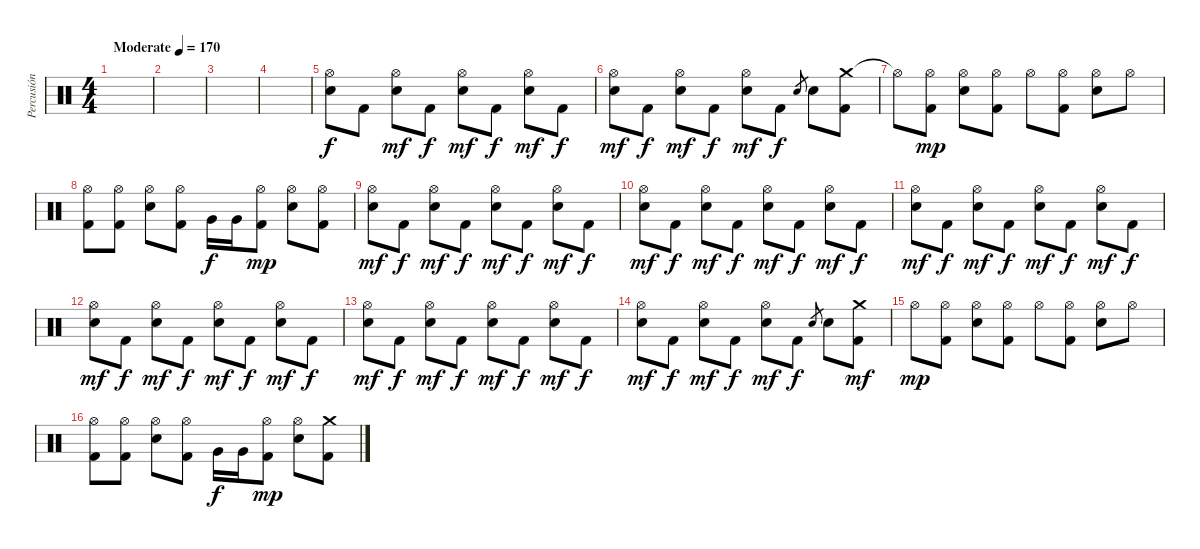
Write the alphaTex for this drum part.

\track ("Percusión" "Percusión") {instrument percussion}
\staff {score}
\articulation defaults
\ts (4 4)
\tempo (170 "Moderate")
\clef neutral
\ks c
|
|
|
|
("Hi-Hat (open)" "Electric Snare (hit)").8 "Kick (hit) 2".8{dy f} ("Hi-Hat (open)" "Electric Snare (hit)").8{dy mf} "Kick (hit) 2".8{dy f} ("Hi-Hat (open)" "Electric Snare (hit)").8{dy mf} "Kick (hit) 2".8{dy f} ("Hi-Hat (open)" "Electric Snare (hit)").8{dy mf} "Kick (hit) 2".8{dy f} |
("Hi-Hat (open)" "Electric Snare (hit)").8{dy mf} "Kick (hit) 2".8{dy f} ("Hi-Hat (open)" "Electric Snare (hit)").8{dy mf} "Kick (hit) 2".8{dy f} ("Hi-Hat (open)" "Electric Snare (hit)").8{dy mf} "Kick (hit) 2".8{dy f} "Electric Snare (hit)".8{gr} "Electric Snare (hit)".8 ("Crash medium (hit)" "Kick (hit) 2").8 |
"Hi-Hat (open)"{t}.8 ("Hi-Hat (open)" "Kick (hit) 2").8{dy mp} ("Hi-Hat (open)" "Electric Snare (hit)").8 ("Hi-Hat (open)" "Kick (hit) 2").8 "Hi-Hat (open)".8 ("Hi-Hat (open)" "Kick (hit) 2").8 ("Hi-Hat (open)" "Electric Snare (hit)").8 "Hi-Hat (open)".8 |
("Hi-Hat (open)" "Kick (hit) 2").8 ("Hi-Hat (open)" "Kick (hit) 2").8 ("Hi-Hat (open)" "Electric Snare (hit)").8 ("Hi-Hat (open)" "Kick (hit) 2").8 "Very Low Tom (hit)".16{dy f} "Very Low Tom (hit)".16 ("Hi-Hat (open)" "Kick (hit) 2").8{dy mp} ("Hi-Hat (open)" "Electric Snare (hit)").8 ("Hi-Hat (open)" "Kick (hit) 2").8 |
("Hi-Hat (open)" "Electric Snare (hit)").8{dy mf} "Kick (hit) 2".8{dy f} ("Hi-Hat (open)" "Electric Snare (hit)").8{dy mf} "Kick (hit) 2".8{dy f} ("Hi-Hat (open)" "Electric Snare (hit)").8{dy mf} "Kick (hit) 2".8{dy f} ("Hi-Hat (open)" "Electric Snare (hit)").8{dy mf} "Kick (hit) 2".8{dy f} |
("Hi-Hat (open)" "Electric Snare (hit)").8{dy mf} "Kick (hit) 2".8{dy f} ("Hi-Hat (open)" "Electric Snare (hit)").8{dy mf} "Kick (hit) 2".8{dy f} ("Hi-Hat (open)" "Electric Snare (hit)").8{dy mf} "Kick (hit) 2".8{dy f} ("Hi-Hat (open)" "Electric Snare (hit)").8{dy mf} "Kick (hit) 2".8{dy f} |
("Hi-Hat (open)" "Electric Snare (hit)").8{dy mf} "Kick (hit) 2".8{dy f} ("Hi-Hat (open)" "Electric Snare (hit)").8{dy mf} "Kick (hit) 2".8{dy f} ("Hi-Hat (open)" "Electric Snare (hit)").8{dy mf} "Kick (hit) 2".8{dy f} ("Hi-Hat (open)" "Electric Snare (hit)").8{dy mf} "Kick (hit) 2".8{dy f} |
("Hi-Hat (open)" "Electric Snare (hit)").8{dy mf} "Kick (hit) 2".8{dy f} ("Hi-Hat (open)" "Electric Snare (hit)").8{dy mf} "Kick (hit) 2".8{dy f} ("Hi-Hat (open)" "Electric Snare (hit)").8{dy mf} "Kick (hit) 2".8{dy f} ("Hi-Hat (open)" "Electric Snare (hit)").8{dy mf} "Kick (hit) 2".8{dy f} |
("Hi-Hat (open)" "Electric Snare (hit)").8{dy mf} "Kick (hit) 2".8{dy f} ("Hi-Hat (open)" "Electric Snare (hit)").8{dy mf} "Kick (hit) 2".8{dy f} ("Hi-Hat (open)" "Electric Snare (hit)").8{dy mf} "Kick (hit) 2".8{dy f} ("Hi-Hat (open)" "Electric Snare (hit)").8{dy mf} "Kick (hit) 2".8{dy f} |
("Hi-Hat (open)" "Electric Snare (hit)").8{dy mf} "Kick (hit) 2".8{dy f} ("Hi-Hat (open)" "Electric Snare (hit)").8{dy mf} "Kick (hit) 2".8{dy f} ("Hi-Hat (open)" "Electric Snare (hit)").8{dy mf} "Kick (hit) 2".8{dy f} "Electric Snare (hit)".8{gr} "Electric Snare (hit)".8 ("Crash medium (hit)" "Kick (hit) 2").8{dy mf} |
"Hi-Hat (open)".8{dy mp} ("Hi-Hat (open)" "Kick (hit) 2").8 ("Hi-Hat (open)" "Electric Snare (hit)").8 ("Hi-Hat (open)" "Kick (hit) 2").8 "Hi-Hat (open)".8 ("Hi-Hat (open)" "Kick (hit) 2").8 ("Hi-Hat (open)" "Electric Snare (hit)").8 "Hi-Hat (open)".8 |
("Hi-Hat (open)" "Kick (hit) 2").8 ("Hi-Hat (open)" "Kick (hit) 2").8 ("Hi-Hat (open)" "Electric Snare (hit)").8 ("Hi-Hat (open)" "Kick (hit) 2").8 "Very Low Tom (hit)".16{dy f} "Very Low Tom (hit)".16 ("Hi-Hat (open)" "Kick (hit) 2").8{dy mp} ("Hi-Hat (open)" "Electric Snare (hit)").8 ("Crash medium (hit)" "Kick (hit) 2").8
